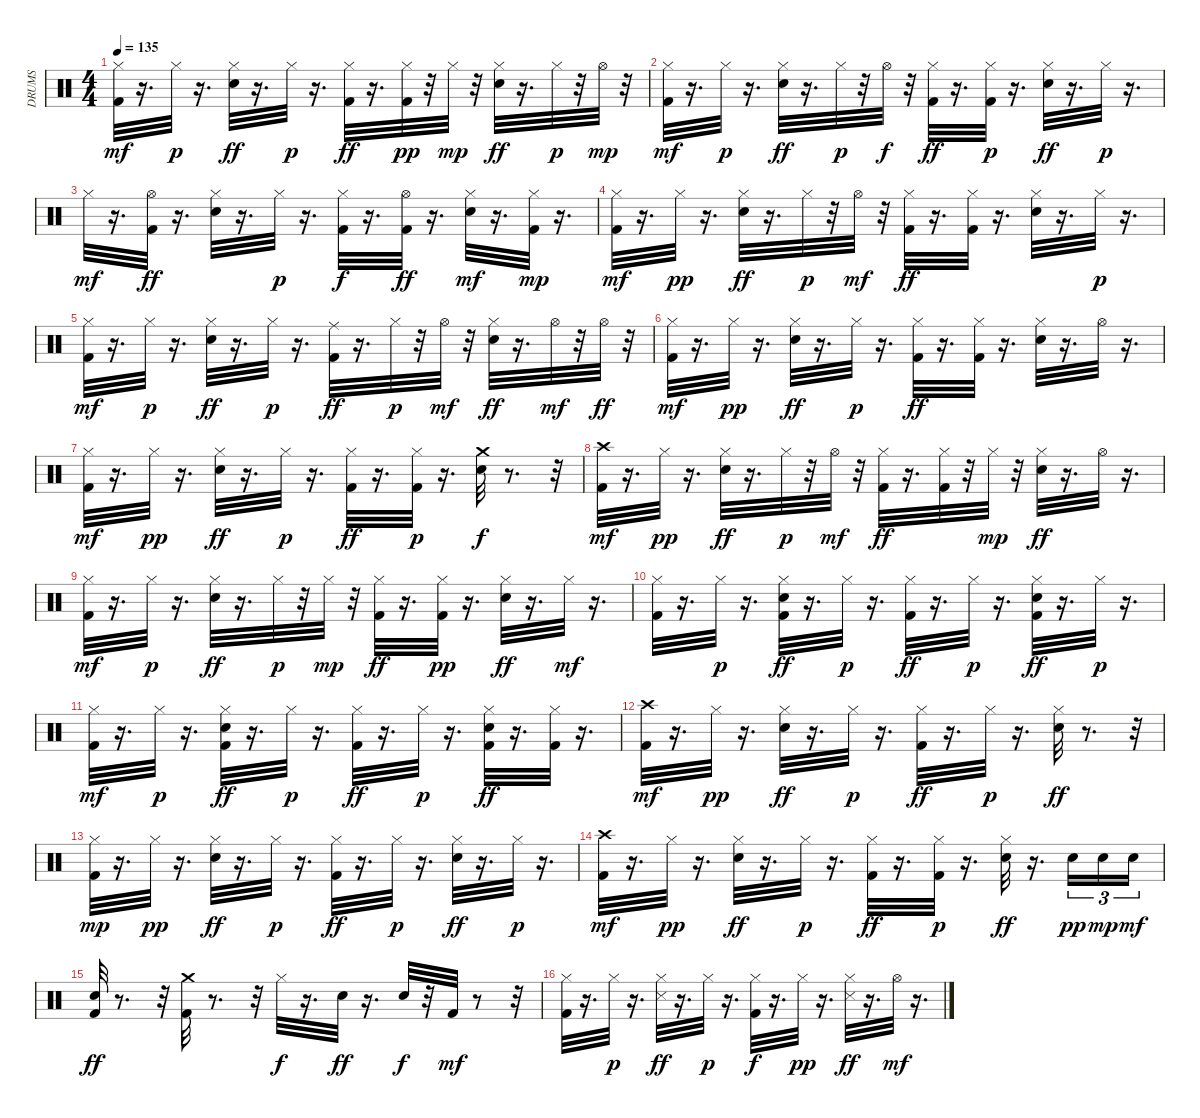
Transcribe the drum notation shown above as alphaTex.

\track ("DRUMS" "DRUMS") {instrument percussion}
\staff {score}
\articulation defaults
\ts (4 4)
\tempo 135
\clef neutral
\ks c
("Kick (hit) 2" "Hi-Hat (closed)").32{dy mf} r.16{d} "Hi-Hat (closed)".32{dy p} r.16{d} ("Hi-Hat (closed)" "Electric Snare (hit)").32{dy ff} r.16{d} "Hi-Hat (closed)".32{dy p} r.16{d} ("Kick (hit) 2" "Hi-Hat (closed)").32{dy ff} r.16{d} ("Kick (hit) 2" "Hi-Hat (closed)").32{dy pp} r.32 "Hi-Hat (closed)".32{dy mp} r.32 ("Hi-Hat (closed)" "Electric Snare (hit)").32{dy ff} r.16{d} "Hi-Hat (closed)".32{dy p} r.32 "Hi-Hat (open)".32{dy mp} r.32 |
("Kick (hit) 2" "Hi-Hat (closed)").32{dy mf} r.16{d} "Hi-Hat (closed)".32{dy p} r.16{d} ("Hi-Hat (closed)" "Electric Snare (hit)").32{dy ff} r.16{d} "Hi-Hat (closed)".32{dy p} r.32 "Hi-Hat (open)".32{dy f} r.32 ("Kick (hit) 2" "Hi-Hat (closed)").32{dy ff} r.16{d} ("Kick (hit) 2" "Hi-Hat (closed)").32{dy p} r.16{d} ("Hi-Hat (closed)" "Electric Snare (hit)").32{dy ff} r.16{d} "Hi-Hat (closed)".32{dy p} r.16{d} |
"Hi-Hat (closed)".32{dy mf} r.16{d} ("Hi-Hat (open)" "Kick (hit) 2").32{dy ff} r.16{d} ("Hi-Hat (closed)" "Electric Snare (hit)").32 r.16{d} "Hi-Hat (closed)".32{dy p} r.16{d} ("Hi-Hat (closed)" "Kick (hit) 2").32{dy f} r.16{d} ("Hi-Hat (open)" "Kick (hit) 2").32{dy ff} r.16{d} ("Electric Snare (hit)" "Hi-Hat (closed)").32{dy mf} r.16{d} ("Hi-Hat (closed)" "Kick (hit) 2").32{dy mp} r.16{d} |
("Kick (hit) 2" "Hi-Hat (closed)").32{dy mf} r.16{d} "Hi-Hat (closed)".32{dy pp} r.16{d} ("Hi-Hat (closed)" "Electric Snare (hit)").32{dy ff} r.16{d} "Hi-Hat (closed)".32{dy p} r.32 "Hi-Hat (open)".32{dy mf} r.32 ("Hi-Hat (closed)" "Kick (hit) 2").32{dy ff} r.16{d} ("Hi-Hat (closed)" "Kick (hit) 2").32 r.16{d} ("Electric Snare (hit)" "Hi-Hat (closed)").32 r.16{d} "Hi-Hat (closed)".32{dy p} r.16{d} |
("Kick (hit) 2" "Hi-Hat (closed)").32{dy mf} r.16{d} "Hi-Hat (closed)".32{dy p} r.16{d} ("Hi-Hat (closed)" "Electric Snare (hit)").32{dy ff} r.16{d} "Hi-Hat (closed)".32{dy p} r.16{d} ("Kick (hit) 2" "Ride (middle)").32{dy ff} r.16{d} "Hi-Hat (closed)".32{dy p} r.32 "Hi-Hat (open)".32{dy mf} r.32 ("Hi-Hat (closed)" "Electric Snare (hit)").32{dy ff} r.16{d} "Hi-Hat (open)".32{dy mf} r.32 "Hi-Hat (open)".32{dy ff} r.32 |
("Kick (hit) 2" "Hi-Hat (closed)").32{dy mf} r.16{d} "Hi-Hat (closed)".32{dy pp} r.16{d} ("Hi-Hat (closed)" "Electric Snare (hit)").32{dy ff} r.16{d} "Hi-Hat (closed)".32{dy p} r.16{d} ("Hi-Hat (closed)" "Kick (hit) 2").32{dy ff} r.16{d} ("Hi-Hat (closed)" "Kick (hit) 2").32 r.16{d} ("Electric Snare (hit)" "Hi-Hat (closed)").32 r.16{d} "Hi-Hat (open)".32 r.16{d} |
("Kick (hit) 2" "Hi-Hat (closed)").32{dy mf} r.16{d} "Hi-Hat (closed)".32{dy pp} r.16{d} ("Hi-Hat (closed)" "Electric Snare (hit)").32{dy ff} r.16{d} "Hi-Hat (closed)".32{dy p} r.16{d} ("Kick (hit) 2" "Hi-Hat (closed)").32{dy ff} r.16{d} ("Kick (hit) 2" "Hi-Hat (closed)").32{dy p} r.16{d} ("Crash medium (hit)" "Electric Snare (hit)").32{dy f} r.8{d} r.32 |
("Kick (hit) 2" "Crash high (hit)").32{dy mf} r.16{d} "Hi-Hat (closed)".32{dy pp} r.16{d} ("Hi-Hat (closed)" "Electric Snare (hit)").32{dy ff} r.16{d} "Hi-Hat (closed)".32{dy p} r.32 "Hi-Hat (open)".32{dy mf} r.32 ("Hi-Hat (closed)" "Kick (hit) 2").32{dy ff} r.16{d} ("Hi-Hat (closed)" "Kick (hit) 2").32 r.32 "Hi-Hat (closed)".32{dy mp} r.32 ("Electric Snare (hit)" "Hi-Hat (closed)").32{dy ff} r.16{d} "Hi-Hat (open)".32 r.16{d} |
("Kick (hit) 2" "Hi-Hat (closed)").32{dy mf} r.16{d} "Hi-Hat (closed)".32{dy p} r.16{d} ("Hi-Hat (closed)" "Electric Snare (hit)").32{dy ff} r.16{d} "Hi-Hat (closed)".32{dy p} r.32 "Hi-Hat (closed)".32{dy mp} r.32 ("Kick (hit) 2" "Hi-Hat (closed)").32{dy ff} r.16{d} ("Kick (hit) 2" "Hi-Hat (closed)").32{dy pp} r.16{d} ("Hi-Hat (closed)" "Electric Snare (hit)").32{dy ff} r.16{d} "Hi-Hat (closed)".32{dy mf} r.16{d} |
("Kick (hit) 2" "Hi-Hat (closed)").32 r.16{d} "Hi-Hat (closed)".32{dy p} r.16{d} ("Hi-Hat (closed)" "Electric Snare (hit)" "Kick (hit) 2").32{dy ff} r.16{d} "Hi-Hat (closed)".32{dy p} r.16{d} ("Kick (hit) 2" "Hi-Hat (closed)").32{dy ff} r.16{d} "Hi-Hat (closed)".32{dy p} r.16{d} ("Hi-Hat (closed)" "Electric Snare (hit)" "Kick (hit) 2").32{dy ff} r.16{d} "Hi-Hat (closed)".32{dy p} r.16{d} |
("Kick (hit) 2" "Hi-Hat (closed)").32{dy mf} r.16{d} "Hi-Hat (closed)".32{dy p} r.16{d} ("Hi-Hat (closed)" "Electric Snare (hit)" "Kick (hit) 2").32{dy ff} r.16{d} "Hi-Hat (closed)".32{dy p} r.16{d} ("Kick (hit) 2" "Hi-Hat (closed)").32{dy ff} r.16{d} "Hi-Hat (closed)".32{dy p} r.16{d} ("Electric Snare (hit)" "Hi-Hat (closed)" "Kick (hit) 2").32{dy ff} r.16{d} ("Hi-Hat (closed)" "Kick (hit) 2").32 r.16{d} |
("Kick (hit) 2" "Crash high (hit)").32{dy mf} r.16{d} "Hi-Hat (closed)".32{dy pp} r.16{d} ("Hi-Hat (closed)" "Electric Snare (hit)").32{dy ff} r.16{d} "Hi-Hat (closed)".32{dy p} r.16{d} ("Hi-Hat (closed)" "Kick (hit) 2").32{dy ff} r.16{d} "Hi-Hat (closed)".32{dy p} r.16{d} ("Electric Snare (hit)" "Hi-Hat (closed)").32{dy ff} r.8{d} r.32 |
("Kick (hit) 2" "Hi-Hat (closed)").32{dy mp} r.16{d} "Hi-Hat (closed)".32{dy pp} r.16{d} ("Hi-Hat (closed)" "Electric Snare (hit)").32{dy ff} r.16{d} "Hi-Hat (closed)".32{dy p} r.16{d} ("Hi-Hat (closed)" "Kick (hit) 2").32{dy ff} r.16{d} "Hi-Hat (closed)".32{dy p} r.16{d} ("Electric Snare (hit)" "Hi-Hat (closed)").32{dy ff} r.16{d} "Hi-Hat (closed)".32{dy p} r.16{d} |
("Kick (hit) 2" "Crash high (hit)").32{dy mf} r.16{d} "Hi-Hat (closed)".32{dy pp} r.16{d} ("Hi-Hat (closed)" "Electric Snare (hit)").32{dy ff} r.16{d} "Hi-Hat (closed)".32{dy p} r.16{d} ("Hi-Hat (closed)" "Kick (hit) 2").32{dy ff} r.16{d} ("Hi-Hat (closed)" "Kick (hit) 2").32{dy p} r.16{d} ("Electric Snare (hit)" "Hi-Hat (closed)").32{dy ff} r.16{d} "Electric Snare (hit)".16{tu (3 2) dy pp} "Electric Snare (hit)".16{tu (3 2) dy mp} "Electric Snare (hit)".16{tu (3 2) dy mf} |
("Electric Snare (hit)" "Kick (hit) 2").32{dy ff} r.8{d} r.32 ("Crash medium (hit)" "Kick (hit) 2").32 r.8{d} r.32 "Hi-Hat (closed)".32{dy f} r.16{d} "Electric Snare (hit)".32{dy ff} r.16{d} "Electric Snare (hit)".32{dy f} r.32 "Kick (hit) 2".32{dy mf} r.8 r.32 |
("Kick (hit) 2" "Hi-Hat (closed)").32 r.16{d} "Hi-Hat (closed)".32{dy p} r.16{d} ("Hi-Hat (closed)" "Snare (side stick) 3").32{dy ff} r.16{d} "Hi-Hat (closed)".32{dy p} r.16{d} ("Kick (hit) 2" "Hi-Hat (closed)").32{dy f} r.16{d} "Hi-Hat (closed)".32{dy pp} r.16{d} ("Hi-Hat (closed)" "Snare (side stick) 3").32{dy ff} r.16{d} "Hi-Hat (open)".32{dy mf} r.16{d}
